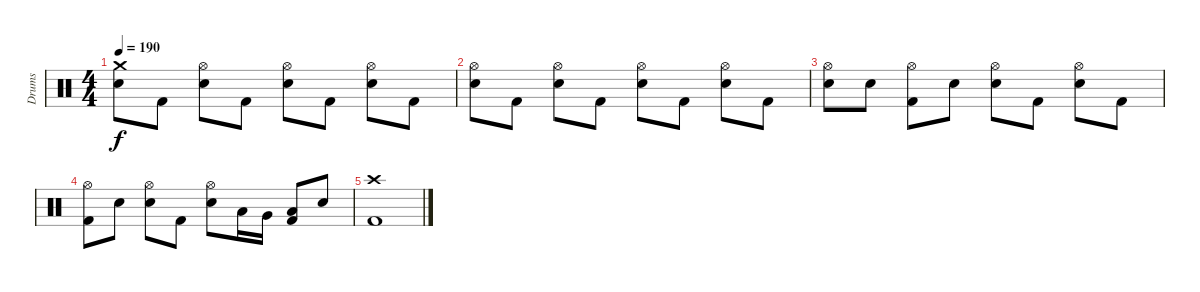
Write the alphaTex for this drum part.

\track ("Drums" "Drums") {instrument percussion}
\staff {score}
\articulation defaults
\ts (4 4)
\tempo 190
\clef neutral
\ks c
("Crash medium (hit)" "Electric Snare (hit)").8{dy f} "Kick (hit) 2".8 ("Hi-Hat (open)" "Electric Snare (hit)").8 "Kick (hit) 2".8 ("Hi-Hat (open)" "Electric Snare (hit)").8 "Kick (hit) 2".8 ("Hi-Hat (open)" "Electric Snare (hit)").8 "Kick (hit) 2".8 |
("Hi-Hat (open)" "Electric Snare (hit)").8 "Kick (hit) 2".8 ("Hi-Hat (open)" "Electric Snare (hit)").8 "Kick (hit) 2".8 ("Hi-Hat (open)" "Electric Snare (hit)").8 "Kick (hit) 2".8 ("Hi-Hat (open)" "Electric Snare (hit)").8 "Kick (hit) 2".8 |
("Hi-Hat (open)" "Electric Snare (hit)").8 "Electric Snare (hit)".8 ("Hi-Hat (open)" "Kick (hit) 2").8 "Electric Snare (hit)".8 ("Hi-Hat (open)" "Electric Snare (hit)").8 "Kick (hit) 2".8 ("Hi-Hat (open)" "Electric Snare (hit)").8 "Kick (hit) 2".8 |
("Hi-Hat (open)" "Kick (hit) 2").8 "Electric Snare (hit)".8 ("Hi-Hat (open)" "Electric Snare (hit)").8 "Kick (hit) 2".8 ("Hi-Hat (open)" "Electric Snare (hit)").8 "Low Tom (hit)".16 "Very Low Tom (hit)".16 ("Low Floor Tom (hit)" "Kick (hit) 2").8 "Electric Snare (hit)".8 |
("Crash high (hit)" "Kick (hit) 2").1
